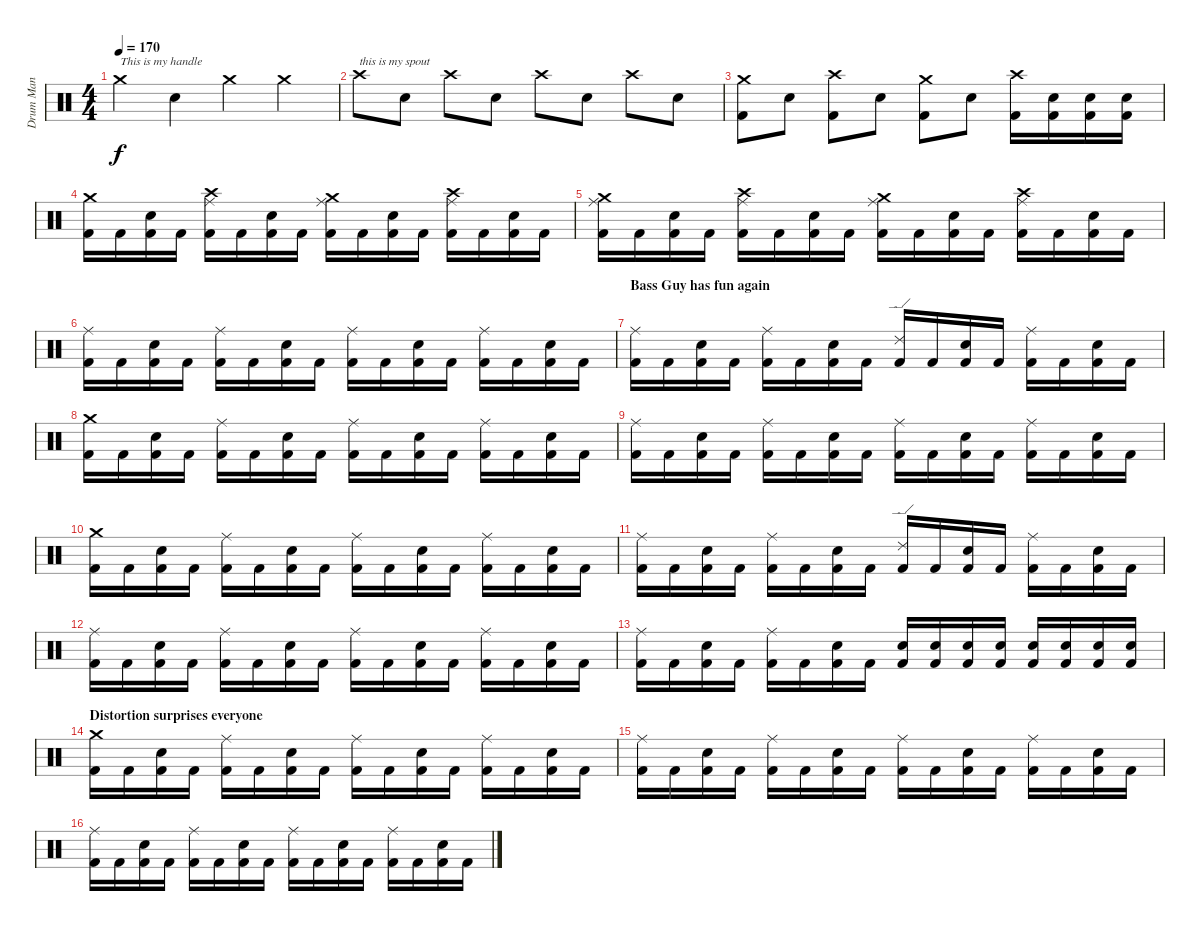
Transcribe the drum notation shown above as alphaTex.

\track ("Drum Man" "Drum Man") {instrument percussion}
\staff {score}
\articulation defaults
\ts (4 4)
\tempo 170
\clef neutral
\ks c "Crash medium (hit)".4{txt "This is my handle" dy f} "Electric Snare (hit)".4 "Crash medium (hit)".4 "Crash medium (hit)".4
|
"Crash high (hit)".8{txt "this is my spout"} "Electric Snare (hit)".8 "Crash high (hit)".8 "Electric Snare (hit)".8 "Crash high (hit)".8 "Electric Snare (hit)".8 "Crash high (hit)".8 "Electric Snare (hit)".8 |
("Crash medium (hit)" "Kick (hit) 2").8 "Electric Snare (hit)".8 ("Crash high (hit)" "Kick (hit) 2").8 "Electric Snare (hit)".8 ("Crash medium (hit)" "Kick (hit) 2").8 "Electric Snare (hit)".8 ("Crash high (hit)" "Kick (hit) 2").16 ("Electric Snare (hit)" "Kick (hit) 2").16 ("Electric Snare (hit)" "Kick (hit) 2").16 ("Electric Snare (hit)" "Kick (hit) 2").16 |
("Crash medium (hit)" "Kick (hit) 2").16 "Kick (hit) 2".16 ("Snare (hit) 2" "Kick (hit) 2").16 "Kick (hit) 2".16 ("Crash high (hit)" "Ride (middle)" "Kick (hit) 2").16 "Kick (hit) 2".16 ("Snare (hit) 2" "Kick (hit) 2").16 "Kick (hit) 2".16 ("Crash medium (hit)" "Ride (middle)" "Kick (hit) 2").16 "Kick (hit) 2".16 ("Snare (hit) 2" "Kick (hit) 2").16 "Kick (hit) 2".16 ("Crash high (hit)" "Ride (middle)" "Kick (hit) 2").16 "Kick (hit) 2".16 ("Snare (hit) 2" "Kick (hit) 2").16 "Kick (hit) 2".16 |
("Crash medium (hit)" "Ride (middle)" "Kick (hit) 2").16 "Kick (hit) 2".16 ("Snare (hit) 2" "Kick (hit) 2").16 "Kick (hit) 2".16 ("Crash high (hit)" "Ride (middle)" "Kick (hit) 2").16 "Kick (hit) 2".16 ("Snare (hit) 2" "Kick (hit) 2").16 "Kick (hit) 2".16 ("Crash medium (hit)" "Ride (middle)" "Kick (hit) 2").16 "Kick (hit) 2".16 ("Snare (hit) 2" "Kick (hit) 2").16 "Kick (hit) 2".16 ("Crash high (hit)" "Ride (middle)" "Kick (hit) 2").16 "Kick (hit) 2".16 ("Snare (hit) 2" "Kick (hit) 2").16 "Kick (hit) 2".16 |
("Ride (middle)" "Kick (hit) 2").16 "Kick (hit) 2".16 ("Snare (hit) 2" "Kick (hit) 2").16 "Kick (hit) 2".16 ("Ride (middle)" "Kick (hit) 2").16 "Kick (hit) 2".16 ("Snare (hit) 2" "Kick (hit) 2").16 "Kick (hit) 2".16 ("Ride (middle)" "Kick (hit) 2").16 "Kick (hit) 2".16 ("Snare (hit) 2" "Kick (hit) 2").16 "Kick (hit) 2".16 ("Ride (middle)" "Kick (hit) 2").16 "Kick (hit) 2".16 ("Snare (hit) 2" "Kick (hit) 2").16 "Kick (hit) 2".16 |
\section ("" "Bass Guy has fun again")
("Ride (middle)" "Kick (hit) 2").16 "Kick (hit) 2".16 ("Snare (hit) 2" "Kick (hit) 2").16 "Kick (hit) 2".16 ("Ride (middle)" "Kick (hit) 2").16 "Kick (hit) 2".16 ("Snare (hit) 2" "Kick (hit) 2").16 "Kick (hit) 2".16 ("Ride (edge) 2" "Kick (hit) 2").16 "Kick (hit) 2".16 ("Snare (hit) 2" "Kick (hit) 2").16 "Kick (hit) 2".16 ("Ride (middle)" "Kick (hit) 2").16 "Kick (hit) 2".16 ("Snare (hit) 2" "Kick (hit) 2").16 "Kick (hit) 2".16 |
("Crash medium (hit)" "Kick (hit) 2").16 "Kick (hit) 2".16 ("Snare (hit) 2" "Kick (hit) 2").16 "Kick (hit) 2".16 ("Ride (middle)" "Kick (hit) 2").16 "Kick (hit) 2".16 ("Snare (hit) 2" "Kick (hit) 2").16 "Kick (hit) 2".16 ("Ride (middle)" "Kick (hit) 2").16 "Kick (hit) 2".16 ("Snare (hit) 2" "Kick (hit) 2").16 "Kick (hit) 2".16 ("Ride (middle)" "Kick (hit) 2").16 "Kick (hit) 2".16 ("Snare (hit) 2" "Kick (hit) 2").16 "Kick (hit) 2".16 |
("Ride (middle)" "Kick (hit) 2").16 "Kick (hit) 2".16 ("Snare (hit) 2" "Kick (hit) 2").16 "Kick (hit) 2".16 ("Ride (middle)" "Kick (hit) 2").16 "Kick (hit) 2".16 ("Snare (hit) 2" "Kick (hit) 2").16 "Kick (hit) 2".16 ("Ride (middle)" "Kick (hit) 2").16 "Kick (hit) 2".16 ("Snare (hit) 2" "Kick (hit) 2").16 "Kick (hit) 2".16 ("Ride (middle)" "Kick (hit) 2").16 "Kick (hit) 2".16 ("Snare (hit) 2" "Kick (hit) 2").16 "Kick (hit) 2".16 |
("Crash medium (hit)" "Kick (hit) 2").16 "Kick (hit) 2".16 ("Snare (hit) 2" "Kick (hit) 2").16 "Kick (hit) 2".16 ("Ride (middle)" "Kick (hit) 2").16 "Kick (hit) 2".16 ("Snare (hit) 2" "Kick (hit) 2").16 "Kick (hit) 2".16 ("Ride (middle)" "Kick (hit) 2").16 "Kick (hit) 2".16 ("Snare (hit) 2" "Kick (hit) 2").16 "Kick (hit) 2".16 ("Ride (middle)" "Kick (hit) 2").16 "Kick (hit) 2".16 ("Snare (hit) 2" "Kick (hit) 2").16 "Kick (hit) 2".16 |
("Ride (middle)" "Kick (hit) 2").16 "Kick (hit) 2".16 ("Snare (hit) 2" "Kick (hit) 2").16 "Kick (hit) 2".16 ("Ride (middle)" "Kick (hit) 2").16 "Kick (hit) 2".16 ("Snare (hit) 2" "Kick (hit) 2").16 "Kick (hit) 2".16 ("Ride (edge) 2" "Kick (hit) 2").16 "Kick (hit) 2".16 ("Snare (hit) 2" "Kick (hit) 2").16 "Kick (hit) 2".16 ("Ride (middle)" "Kick (hit) 2").16 "Kick (hit) 2".16 ("Snare (hit) 2" "Kick (hit) 2").16 "Kick (hit) 2".16 |
("Ride (middle)" "Kick (hit) 2").16 "Kick (hit) 2".16 ("Snare (hit) 2" "Kick (hit) 2").16 "Kick (hit) 2".16 ("Ride (middle)" "Kick (hit) 2").16 "Kick (hit) 2".16 ("Snare (hit) 2" "Kick (hit) 2").16 "Kick (hit) 2".16 ("Ride (middle)" "Kick (hit) 2").16 "Kick (hit) 2".16 ("Snare (hit) 2" "Kick (hit) 2").16 "Kick (hit) 2".16 ("Ride (middle)" "Kick (hit) 2").16 "Kick (hit) 2".16 ("Snare (hit) 2" "Kick (hit) 2").16 "Kick (hit) 2".16 |
("Ride (middle)" "Kick (hit) 2").16 "Kick (hit) 2".16 ("Snare (hit) 2" "Kick (hit) 2").16 "Kick (hit) 2".16 ("Ride (middle)" "Kick (hit) 2").16 "Kick (hit) 2".16 ("Snare (hit) 2" "Kick (hit) 2").16 "Kick (hit) 2".16 ("Electric Snare (hit)" "Kick (hit) 2").16 ("Electric Snare (hit)" "Kick (hit) 2").16 ("Electric Snare (hit)" "Kick (hit) 2").16 ("Electric Snare (hit)" "Kick (hit) 2").16 ("Electric Snare (hit)" "Kick (hit) 2").16 ("Electric Snare (hit)" "Kick (hit) 2").16 ("Electric Snare (hit)" "Kick (hit) 2").16 ("Electric Snare (hit)" "Kick (hit) 2").16 |
\section ("" "Distortion surprises everyone")
("Crash medium (hit)" "Kick (hit) 2").16 "Kick (hit) 2".16 ("Snare (hit) 2" "Kick (hit) 2").16 "Kick (hit) 2".16 ("Ride (middle)" "Kick (hit) 2").16 "Kick (hit) 2".16 ("Snare (hit) 2" "Kick (hit) 2").16 "Kick (hit) 2".16 ("Ride (middle)" "Kick (hit) 2").16 "Kick (hit) 2".16 ("Snare (hit) 2" "Kick (hit) 2").16 "Kick (hit) 2".16 ("Ride (middle)" "Kick (hit) 2").16 "Kick (hit) 2".16 ("Snare (hit) 2" "Kick (hit) 2").16 "Kick (hit) 2".16 |
("Ride (middle)" "Kick (hit) 2").16 "Kick (hit) 2".16 ("Snare (hit) 2" "Kick (hit) 2").16 "Kick (hit) 2".16 ("Ride (middle)" "Kick (hit) 2").16 "Kick (hit) 2".16 ("Snare (hit) 2" "Kick (hit) 2").16 "Kick (hit) 2".16 ("Ride (middle)" "Kick (hit) 2").16 "Kick (hit) 2".16 ("Snare (hit) 2" "Kick (hit) 2").16 "Kick (hit) 2".16 ("Ride (middle)" "Kick (hit) 2").16 "Kick (hit) 2".16 ("Snare (hit) 2" "Kick (hit) 2").16 "Kick (hit) 2".16 |
("Ride (middle)" "Kick (hit) 2").16 "Kick (hit) 2".16 ("Snare (hit) 2" "Kick (hit) 2").16 "Kick (hit) 2".16 ("Ride (middle)" "Kick (hit) 2").16 "Kick (hit) 2".16 ("Snare (hit) 2" "Kick (hit) 2").16 "Kick (hit) 2".16 ("Ride (middle)" "Kick (hit) 2").16 "Kick (hit) 2".16 ("Snare (hit) 2" "Kick (hit) 2").16 "Kick (hit) 2".16 ("Ride (middle)" "Kick (hit) 2").16 "Kick (hit) 2".16 ("Snare (hit) 2" "Kick (hit) 2").16 "Kick (hit) 2".16
